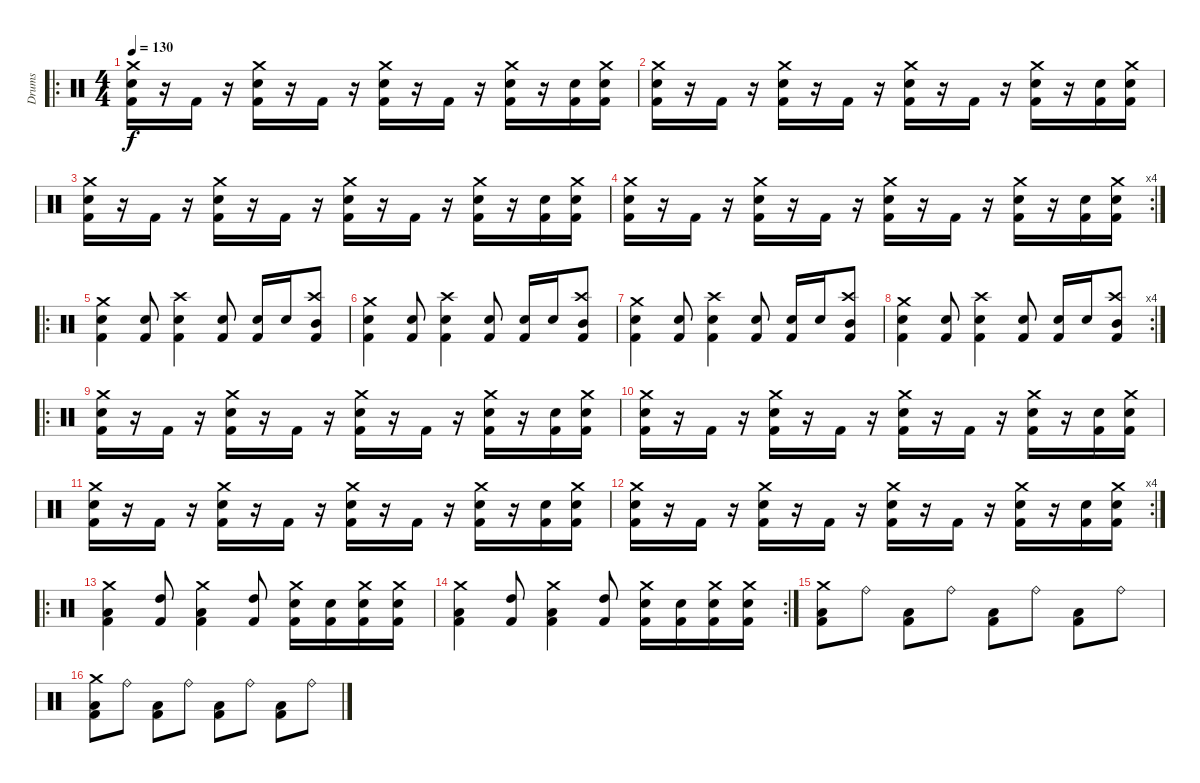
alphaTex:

\track ("Drums" "Drums") {instrument percussion}
\staff {score}
\articulation defaults
\ro
\ts (4 4)
\tempo 130
\clef neutral
\ks c
("Crash medium (hit)" "Kick (hit) 2" "Electric Snare (hit)").16{dy f} r.16 "Kick (hit) 2".16 r.16 ("Crash medium (hit)" "Kick (hit) 2" "Electric Snare (hit)").16 r.16 "Kick (hit) 2".16 r.16 ("Crash medium (hit)" "Kick (hit) 2" "Electric Snare (hit)").16 r.16 "Kick (hit) 2".16 r.16 ("Crash medium (hit)" "Kick (hit) 2" "Electric Snare (hit)").16 r.16 ("Kick (hit) 2" "Electric Snare (hit)").16 ("Crash medium (hit)" "Kick (hit) 2" "Electric Snare (hit)").16 |
("Crash medium (hit)" "Kick (hit) 2" "Electric Snare (hit)").16 r.16 "Kick (hit) 2".16 r.16 ("Crash medium (hit)" "Kick (hit) 2" "Electric Snare (hit)").16 r.16 "Kick (hit) 2".16 r.16 ("Crash medium (hit)" "Kick (hit) 2" "Electric Snare (hit)").16 r.16 "Kick (hit) 2".16 r.16 ("Crash medium (hit)" "Kick (hit) 2" "Electric Snare (hit)").16 r.16 ("Kick (hit) 2" "Electric Snare (hit)").16 ("Crash medium (hit)" "Kick (hit) 2" "Electric Snare (hit)").16 |
("Crash medium (hit)" "Kick (hit) 2" "Electric Snare (hit)").16 r.16 "Kick (hit) 2".16 r.16 ("Crash medium (hit)" "Kick (hit) 2" "Electric Snare (hit)").16 r.16 "Kick (hit) 2".16 r.16 ("Crash medium (hit)" "Kick (hit) 2" "Electric Snare (hit)").16 r.16 "Kick (hit) 2".16 r.16 ("Crash medium (hit)" "Kick (hit) 2" "Electric Snare (hit)").16 r.16 ("Kick (hit) 2" "Electric Snare (hit)").16 ("Crash medium (hit)" "Kick (hit) 2" "Electric Snare (hit)").16 |
\rc 4
("Crash medium (hit)" "Kick (hit) 2" "Electric Snare (hit)").16 r.16 "Kick (hit) 2".16 r.16 ("Crash medium (hit)" "Kick (hit) 2" "Electric Snare (hit)").16 r.16 "Kick (hit) 2".16 r.16 ("Crash medium (hit)" "Kick (hit) 2" "Electric Snare (hit)").16 r.16 "Kick (hit) 2".16 r.16 ("Crash medium (hit)" "Kick (hit) 2" "Electric Snare (hit)").16 r.16 ("Kick (hit) 2" "Electric Snare (hit)").16 ("Crash medium (hit)" "Kick (hit) 2" "Electric Snare (hit)").16 |
\ro
("Crash medium (hit)" "Kick (hit) 2" "Snare (hit) 2").4 ("Kick (hit) 2" "Snare (hit) 2").8 ("Crash high (hit)" "Kick (hit) 2" "Snare (hit) 2").4 ("Kick (hit) 2" "Snare (hit) 2").8 ("Kick (hit) 2" "Snare (hit) 2").16 "Snare (hit) 2".16 ("Crash high (hit)" "Kick (hit) 2" "Mid Tom (hit)").8 |
("Crash medium (hit)" "Kick (hit) 2" "Snare (hit) 2").4 ("Kick (hit) 2" "Snare (hit) 2").8 ("Crash high (hit)" "Kick (hit) 2" "Snare (hit) 2").4 ("Kick (hit) 2" "Snare (hit) 2").8 ("Kick (hit) 2" "Snare (hit) 2").16 "Snare (hit) 2".16 ("Crash high (hit)" "Kick (hit) 2" "Mid Tom (hit)").8 |
("Crash medium (hit)" "Kick (hit) 2" "Snare (hit) 2").4 ("Kick (hit) 2" "Snare (hit) 2").8 ("Crash high (hit)" "Kick (hit) 2" "Snare (hit) 2").4 ("Kick (hit) 2" "Snare (hit) 2").8 ("Kick (hit) 2" "Snare (hit) 2").16 "Snare (hit) 2".16 ("Crash high (hit)" "Kick (hit) 2" "Mid Tom (hit)").8 |
\rc 4
("Crash medium (hit)" "Kick (hit) 2" "Snare (hit) 2").4 ("Kick (hit) 2" "Snare (hit) 2").8 ("Crash high (hit)" "Kick (hit) 2" "Snare (hit) 2").4 ("Kick (hit) 2" "Snare (hit) 2").8 ("Kick (hit) 2" "Snare (hit) 2").16 "Snare (hit) 2".16 ("Crash high (hit)" "Kick (hit) 2" "Mid Tom (hit)").8 |
\ro
("Crash medium (hit)" "Kick (hit) 2" "Electric Snare (hit)").16 r.16 "Kick (hit) 2".16 r.16 ("Crash medium (hit)" "Kick (hit) 2" "Electric Snare (hit)").16 r.16 "Kick (hit) 2".16 r.16 ("Crash medium (hit)" "Kick (hit) 2" "Electric Snare (hit)").16 r.16 "Kick (hit) 2".16 r.16 ("Crash medium (hit)" "Kick (hit) 2" "Electric Snare (hit)").16 r.16 ("Kick (hit) 2" "Electric Snare (hit)").16 ("Crash medium (hit)" "Kick (hit) 2" "Electric Snare (hit)").16 |
("Crash medium (hit)" "Kick (hit) 2" "Electric Snare (hit)").16 r.16 "Kick (hit) 2".16 r.16 ("Crash medium (hit)" "Kick (hit) 2" "Electric Snare (hit)").16 r.16 "Kick (hit) 2".16 r.16 ("Crash medium (hit)" "Kick (hit) 2" "Electric Snare (hit)").16 r.16 "Kick (hit) 2".16 r.16 ("Crash medium (hit)" "Kick (hit) 2" "Electric Snare (hit)").16 r.16 ("Kick (hit) 2" "Electric Snare (hit)").16 ("Crash medium (hit)" "Kick (hit) 2" "Electric Snare (hit)").16 |
("Crash medium (hit)" "Kick (hit) 2" "Electric Snare (hit)").16 r.16 "Kick (hit) 2".16 r.16 ("Crash medium (hit)" "Kick (hit) 2" "Electric Snare (hit)").16 r.16 "Kick (hit) 2".16 r.16 ("Crash medium (hit)" "Kick (hit) 2" "Electric Snare (hit)").16 r.16 "Kick (hit) 2".16 r.16 ("Crash medium (hit)" "Kick (hit) 2" "Electric Snare (hit)").16 r.16 ("Kick (hit) 2" "Electric Snare (hit)").16 ("Crash medium (hit)" "Kick (hit) 2" "Electric Snare (hit)").16 |
\rc 4
("Crash medium (hit)" "Kick (hit) 2" "Electric Snare (hit)").16 r.16 "Kick (hit) 2".16 r.16 ("Crash medium (hit)" "Kick (hit) 2" "Electric Snare (hit)").16 r.16 "Kick (hit) 2".16 r.16 ("Crash medium (hit)" "Kick (hit) 2" "Electric Snare (hit)").16 r.16 "Kick (hit) 2".16 r.16 ("Crash medium (hit)" "Kick (hit) 2" "Electric Snare (hit)").16 r.16 ("Kick (hit) 2" "Electric Snare (hit)").16 ("Crash medium (hit)" "Kick (hit) 2" "Electric Snare (hit)").16 |
\ro
("Crash medium (hit)" "Kick (hit) 2" "Low Tom (hit)").4 ("Kick (hit) 2" "High Tom (hit)").8 ("Crash medium (hit)" "Kick (hit) 2" "Low Tom (hit)").4 ("Kick (hit) 2" "High Tom (hit)").8 ("Crash medium (hit)" "Kick (hit) 2" "Electric Snare (hit)").16 ("Kick (hit) 2" "Electric Snare (hit)").16 ("Crash medium (hit)" "Kick (hit) 2" "Electric Snare (hit)").16 ("Crash medium (hit)" "Kick (hit) 2" "Electric Snare (hit)").16 |
\rc 2
("Crash medium (hit)" "Kick (hit) 2" "Low Tom (hit)").4 ("Kick (hit) 2" "High Tom (hit)").8 ("Crash medium (hit)" "Kick (hit) 2" "Low Tom (hit)").4 ("Kick (hit) 2" "High Tom (hit)").8 ("Crash medium (hit)" "Kick (hit) 2" "Electric Snare (hit)").16 ("Kick (hit) 2" "Electric Snare (hit)").16 ("Crash medium (hit)" "Kick (hit) 2" "Electric Snare (hit)").16 ("Crash medium (hit)" "Kick (hit) 2" "Electric Snare (hit)").16 |
("Crash medium (hit)" "Kick (hit) 2" "Low Tom (hit)").8 "Ride (bell)".8 ("Kick (hit) 2" "Low Tom (hit)").8 "Ride (bell)".8 ("Kick (hit) 2" "Low Tom (hit)").8 "Ride (bell)".8 ("Kick (hit) 2" "Low Tom (hit)").8 "Ride (bell)".8 |
("Crash medium (hit)" "Kick (hit) 2" "Low Tom (hit)").8 "Ride (bell)".8 ("Kick (hit) 2" "Low Tom (hit)").8 "Ride (bell)".8 ("Kick (hit) 2" "Low Tom (hit)").8 "Ride (bell)".8 ("Kick (hit) 2" "Low Tom (hit)").8 "Ride (bell)".8
